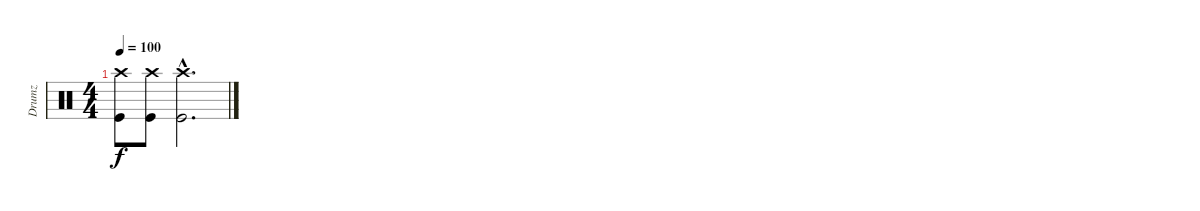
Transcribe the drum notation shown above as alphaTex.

\track ("Drumz" "Drumz") {instrument percussion}
\staff {score}
\articulation defaults
\ts (4 4)
\tempo 100
\clef neutral
\ks c
("Crash high (hit)" "Kick (hit)").8{dy f} ("Crash high (hit)" "Kick (hit)").8 ("Crash high (hit)"{hac} "Kick (hit)"{hac}).2{d}
